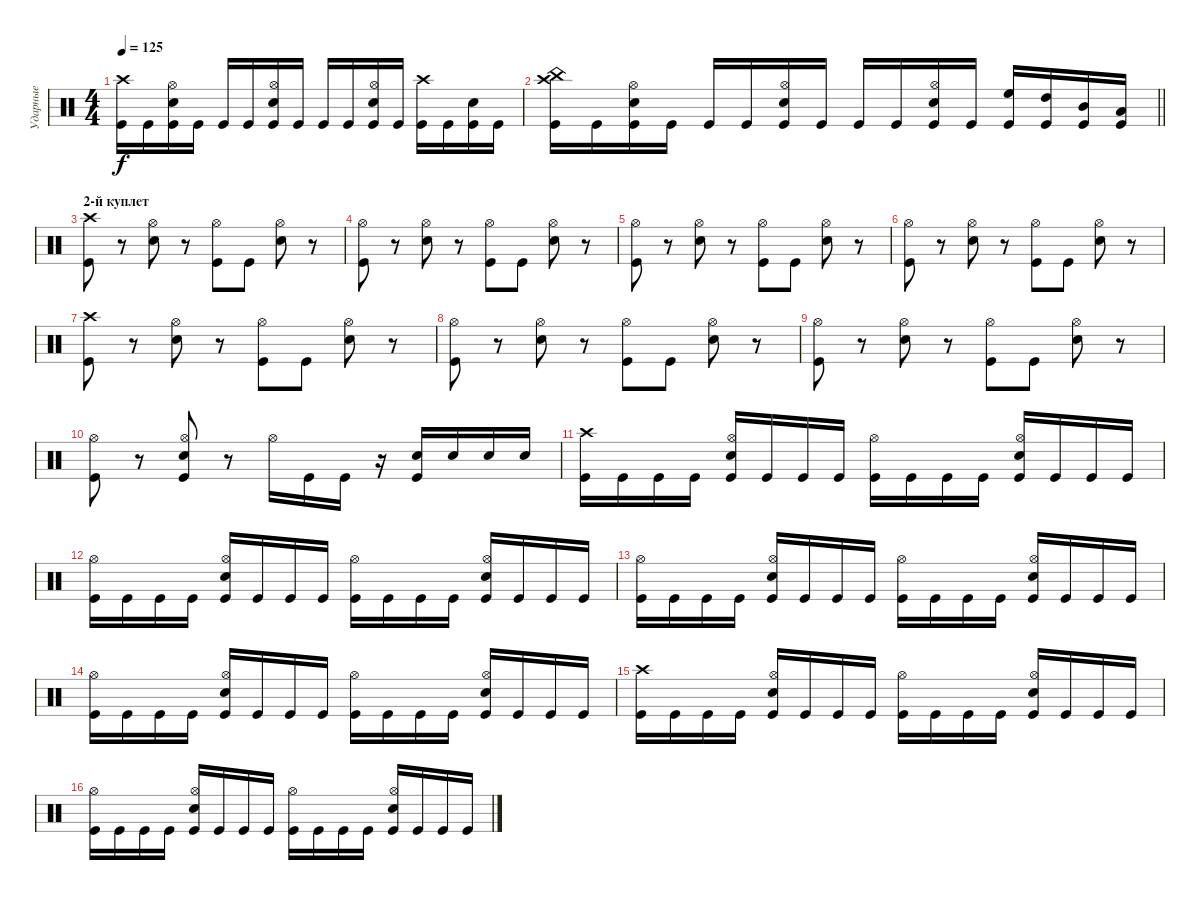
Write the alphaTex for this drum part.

\track ("Ударные" "Ударные") {instrument percussion}
\staff {score}
\articulation defaults
\ts (4 4)
\tempo 125
\clef neutral
\ks c
("Crash high (hit)" "Kick (hit)").16{dy f} "Kick (hit)".16 ("Hi-Hat (open)" "Snare (hit) 2" "Kick (hit)").16 "Kick (hit)".16 "Kick (hit)".16 "Kick (hit)".16 ("Hi-Hat (open)" "Snare (hit) 2" "Kick (hit)").16 "Kick (hit)".16 "Kick (hit)".16 "Kick (hit)".16 ("Hi-Hat (open)" "Snare (hit) 2" "Kick (hit)").16 "Kick (hit)".16 ("Crash high (hit)" "Kick (hit)").16 "Kick (hit)".16 ("Snare (hit) 2" "Kick (hit)").16 "Kick (hit)".16 |
\barLineRight lightlight
("Crash high (hit)" "China (hit)" "Kick (hit)").16 "Kick (hit)".16 ("Hi-Hat (open)" "Snare (hit) 2" "Kick (hit)").16 "Kick (hit)".16 "Kick (hit)".16 "Kick (hit)".16 ("Hi-Hat (open)" "Snare (hit) 2" "Kick (hit)").16 "Kick (hit)".16 "Kick (hit)".16 "Kick (hit)".16 ("Hi-Hat (open)" "Snare (hit) 2" "Kick (hit)").16 "Kick (hit)".16 ("High Floor Tom (hit)" "Kick (hit)").16 ("High Tom (hit)" "Kick (hit)").16 ("Mid Tom (hit)" "Kick (hit)").16 ("Low Tom (hit)" "Kick (hit)").16 |
\section ("" "2-й куплет")
("Crash high (hit)" "Kick (hit)").8 r.8 ("Hi-Hat (open)" "Snare (hit) 2").8 r.8 ("Hi-Hat (open)" "Kick (hit)").8 "Kick (hit)".8 ("Hi-Hat (open)" "Snare (hit) 2").8 r.8 |
("Hi-Hat (open)" "Kick (hit)").8 r.8 ("Hi-Hat (open)" "Snare (hit) 2").8 r.8 ("Hi-Hat (open)" "Kick (hit)").8 "Kick (hit)".8 ("Hi-Hat (open)" "Snare (hit) 2").8 r.8 |
("Hi-Hat (open)" "Kick (hit)").8 r.8 ("Hi-Hat (open)" "Snare (hit) 2").8 r.8 ("Hi-Hat (open)" "Kick (hit)").8 "Kick (hit)".8 ("Hi-Hat (open)" "Snare (hit) 2").8 r.8 |
("Hi-Hat (open)" "Kick (hit)").8 r.8 ("Hi-Hat (open)" "Snare (hit) 2").8 r.8 ("Hi-Hat (open)" "Kick (hit)").8 "Kick (hit)".8 ("Hi-Hat (open)" "Snare (hit) 2").8 r.8 |
("Crash high (hit)" "Kick (hit)").8 r.8 ("Hi-Hat (open)" "Snare (hit) 2").8 r.8 ("Hi-Hat (open)" "Kick (hit)").8 "Kick (hit)".8 ("Hi-Hat (open)" "Snare (hit) 2").8 r.8 |
("Hi-Hat (open)" "Kick (hit)").8 r.8 ("Hi-Hat (open)" "Snare (hit) 2").8 r.8 ("Hi-Hat (open)" "Kick (hit)").8 "Kick (hit)".8 ("Hi-Hat (open)" "Snare (hit) 2").8 r.8 |
("Hi-Hat (open)" "Kick (hit)").8 r.8 ("Hi-Hat (open)" "Snare (hit) 2").8 r.8 ("Hi-Hat (open)" "Kick (hit)").8 "Kick (hit)".8 ("Hi-Hat (open)" "Snare (hit) 2").8 r.8 |
("Hi-Hat (open)" "Kick (hit)").8 r.8 ("Hi-Hat (open)" "Snare (hit) 2" "Kick (hit)").8 r.8 "Hi-Hat (open)".16 "Kick (hit)".16 "Kick (hit)".16 r.16 ("Snare (hit) 2" "Kick (hit)").16 "Snare (hit) 2".16 "Snare (hit) 2".16 "Snare (hit) 2".16 |
("Crash high (hit)" "Kick (hit)").16 "Kick (hit)".16 "Kick (hit)".16 "Kick (hit)".16 ("Hi-Hat (open)" "Snare (hit) 2" "Kick (hit)").16 "Kick (hit)".16 "Kick (hit)".16 "Kick (hit)".16 ("Hi-Hat (open)" "Kick (hit)").16 "Kick (hit)".16 "Kick (hit)".16 "Kick (hit)".16 ("Hi-Hat (open)" "Snare (hit) 2" "Kick (hit)").16 "Kick (hit)".16 "Kick (hit)".16 "Kick (hit)".16 |
("Hi-Hat (open)" "Kick (hit)").16 "Kick (hit)".16 "Kick (hit)".16 "Kick (hit)".16 ("Hi-Hat (open)" "Snare (hit) 2" "Kick (hit)").16 "Kick (hit)".16 "Kick (hit)".16 "Kick (hit)".16 ("Hi-Hat (open)" "Kick (hit)").16 "Kick (hit)".16 "Kick (hit)".16 "Kick (hit)".16 ("Hi-Hat (open)" "Snare (hit) 2" "Kick (hit)").16 "Kick (hit)".16 "Kick (hit)".16 "Kick (hit)".16 |
("Hi-Hat (open)" "Kick (hit)").16 "Kick (hit)".16 "Kick (hit)".16 "Kick (hit)".16 ("Hi-Hat (open)" "Snare (hit) 2" "Kick (hit)").16 "Kick (hit)".16 "Kick (hit)".16 "Kick (hit)".16 ("Hi-Hat (open)" "Kick (hit)").16 "Kick (hit)".16 "Kick (hit)".16 "Kick (hit)".16 ("Hi-Hat (open)" "Snare (hit) 2" "Kick (hit)").16 "Kick (hit)".16 "Kick (hit)".16 "Kick (hit)".16 |
("Hi-Hat (open)" "Kick (hit)").16 "Kick (hit)".16 "Kick (hit)".16 "Kick (hit)".16 ("Hi-Hat (open)" "Snare (hit) 2" "Kick (hit)").16 "Kick (hit)".16 "Kick (hit)".16 "Kick (hit)".16 ("Hi-Hat (open)" "Kick (hit)").16 "Kick (hit)".16 "Kick (hit)".16 "Kick (hit)".16 ("Hi-Hat (open)" "Snare (hit) 2" "Kick (hit)").16 "Kick (hit)".16 "Kick (hit)".16 "Kick (hit)".16 |
("Crash high (hit)" "Kick (hit)").16 "Kick (hit)".16 "Kick (hit)".16 "Kick (hit)".16 ("Hi-Hat (open)" "Snare (hit) 2" "Kick (hit)").16 "Kick (hit)".16 "Kick (hit)".16 "Kick (hit)".16 ("Hi-Hat (open)" "Kick (hit)").16 "Kick (hit)".16 "Kick (hit)".16 "Kick (hit)".16 ("Hi-Hat (open)" "Snare (hit) 2" "Kick (hit)").16 "Kick (hit)".16 "Kick (hit)".16 "Kick (hit)".16 |
("Hi-Hat (open)" "Kick (hit)").16 "Kick (hit)".16 "Kick (hit)".16 "Kick (hit)".16 ("Hi-Hat (open)" "Snare (hit) 2" "Kick (hit)").16 "Kick (hit)".16 "Kick (hit)".16 "Kick (hit)".16 ("Hi-Hat (open)" "Kick (hit)").16 "Kick (hit)".16 "Kick (hit)".16 "Kick (hit)".16 ("Hi-Hat (open)" "Snare (hit) 2" "Kick (hit)").16 "Kick (hit)".16 "Kick (hit)".16 "Kick (hit)".16
